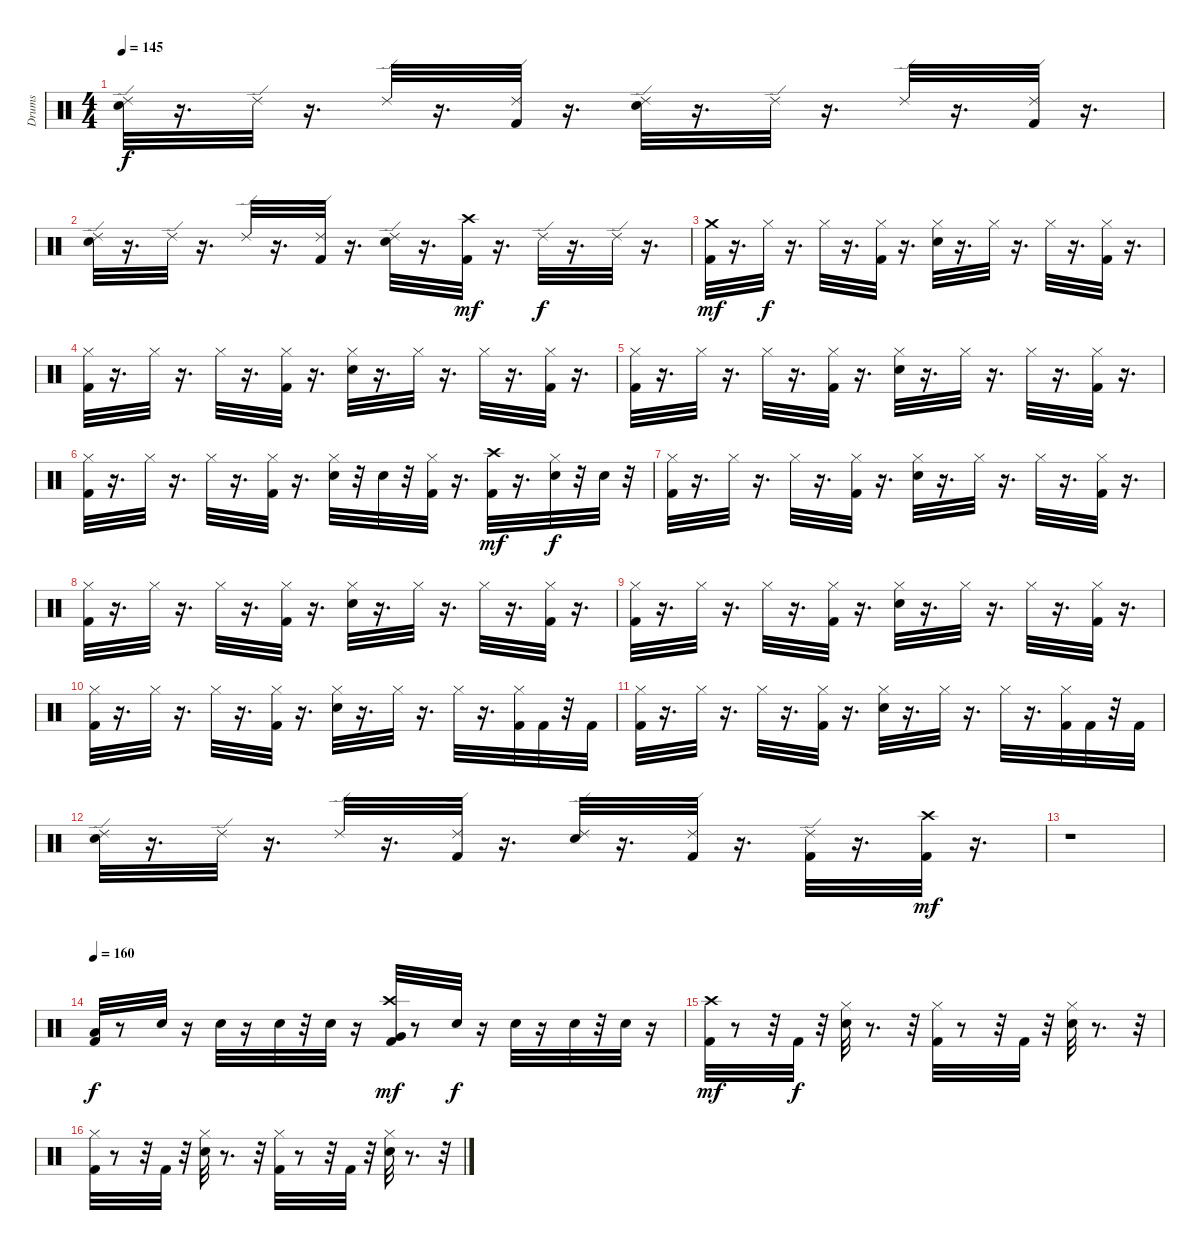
\track ("Drums" "Drums") {instrument percussion}
\staff {score}
\articulation defaults
\ts (4 4)
\tempo 145
\clef neutral
\ks c
("Snare (hit) 2" "Ride (edge) 2").32{dy f} r.16{d} "Ride (edge) 2".32 r.16{d} "Ride (edge) 2".32 r.16{d} ("Kick (hit) 2" "Ride (edge) 2").32 r.16{d} ("Snare (hit) 2" "Ride (edge) 2").32 r.16{d} "Ride (edge) 2".32 r.16{d} "Ride (edge) 2".32 r.16{d} ("Kick (hit) 2" "Ride (edge) 2").32 r.16{d} |
("Snare (hit) 2" "Ride (edge) 2").32 r.16{d} "Ride (edge) 2".32 r.16{d} "Ride (edge) 2".32 r.16{d} ("Kick (hit) 2" "Ride (edge) 2").32 r.16{d} ("Snare (hit) 2" "Ride (edge) 2").32 r.16{d} ("Kick (hit) 2" "Crash high (hit)").32{dy mf} r.16{d} "Ride (edge) 2".32{dy f} r.16{d} "Ride (edge) 2".32 r.16{d} |
("Kick (hit) 2" "Crash medium (hit)").32{dy mf} r.16{d} "Hi-Hat (closed)".32{dy f} r.16{d} "Hi-Hat (closed)".32 r.16{d} ("Kick (hit) 2" "Hi-Hat (closed)").32 r.16{d} ("Snare (hit) 2" "Hi-Hat (closed)").32 r.16{d} "Hi-Hat (closed)".32 r.16{d} "Hi-Hat (closed)".32 r.16{d} ("Kick (hit) 2" "Hi-Hat (closed)").32 r.16{d} |
("Kick (hit) 2" "Hi-Hat (closed)").32 r.16{d} "Hi-Hat (closed)".32 r.16{d} "Hi-Hat (closed)".32 r.16{d} ("Kick (hit) 2" "Hi-Hat (closed)").32 r.16{d} ("Snare (hit) 2" "Hi-Hat (closed)").32 r.16{d} "Hi-Hat (closed)".32 r.16{d} "Hi-Hat (closed)".32 r.16{d} ("Kick (hit) 2" "Hi-Hat (closed)").32 r.16{d} |
("Kick (hit) 2" "Hi-Hat (closed)").32 r.16{d} "Hi-Hat (closed)".32 r.16{d} "Hi-Hat (closed)".32 r.16{d} ("Kick (hit) 2" "Hi-Hat (closed)").32 r.16{d} ("Snare (hit) 2" "Hi-Hat (closed)").32 r.16{d} "Hi-Hat (closed)".32 r.16{d} "Hi-Hat (closed)".32 r.16{d} ("Kick (hit) 2" "Hi-Hat (closed)").32 r.16{d} |
("Kick (hit) 2" "Hi-Hat (closed)").32 r.16{d} "Hi-Hat (closed)".32 r.16{d} "Hi-Hat (closed)".32 r.16{d} ("Kick (hit) 2" "Hi-Hat (closed)").32 r.16{d} ("Snare (hit) 2" "Hi-Hat (closed)").32 r.32 "Snare (hit) 2".32 r.32 ("Kick (hit) 2" "Hi-Hat (closed)").32 r.16{d} ("Kick (hit) 2" "Crash high (hit)").32{dy mf} r.16{d} ("Snare (hit) 2" "Hi-Hat (closed)").32{dy f} r.32 "Snare (hit) 2".32 r.32 |
("Kick (hit) 2" "Hi-Hat (closed)").32 r.16{d} "Hi-Hat (closed)".32 r.16{d} "Hi-Hat (closed)".32 r.16{d} ("Kick (hit) 2" "Hi-Hat (closed)").32 r.16{d} ("Snare (hit) 2" "Hi-Hat (closed)").32 r.16{d} "Hi-Hat (closed)".32 r.16{d} "Hi-Hat (closed)".32 r.16{d} ("Kick (hit) 2" "Hi-Hat (closed)").32 r.16{d} |
("Kick (hit) 2" "Hi-Hat (closed)").32 r.16{d} "Hi-Hat (closed)".32 r.16{d} "Hi-Hat (closed)".32 r.16{d} ("Kick (hit) 2" "Hi-Hat (closed)").32 r.16{d} ("Snare (hit) 2" "Hi-Hat (closed)").32 r.16{d} "Hi-Hat (closed)".32 r.16{d} "Hi-Hat (closed)".32 r.16{d} ("Kick (hit) 2" "Hi-Hat (closed)").32 r.16{d} |
("Kick (hit) 2" "Hi-Hat (closed)").32 r.16{d} "Hi-Hat (closed)".32 r.16{d} "Hi-Hat (closed)".32 r.16{d} ("Kick (hit) 2" "Hi-Hat (closed)").32 r.16{d} ("Snare (hit) 2" "Hi-Hat (closed)").32 r.16{d} "Hi-Hat (closed)".32 r.16{d} "Hi-Hat (closed)".32 r.16{d} ("Kick (hit) 2" "Hi-Hat (closed)").32 r.16{d} |
("Kick (hit) 2" "Hi-Hat (closed)").32 r.16{d} "Hi-Hat (closed)".32 r.16{d} "Hi-Hat (closed)".32 r.16{d} ("Kick (hit) 2" "Hi-Hat (closed)").32 r.16{d} ("Snare (hit) 2" "Hi-Hat (closed)").32 r.16{d} "Hi-Hat (closed)".32 r.16{d} "Hi-Hat (closed)".32 r.16{d} ("Kick (hit) 2" "Hi-Hat (closed)").32 "Kick (hit) 2".32 r.32 "Kick (hit) 2".32 |
("Kick (hit) 2" "Hi-Hat (closed)").32 r.16{d} "Hi-Hat (closed)".32 r.16{d} "Hi-Hat (closed)".32 r.16{d} ("Kick (hit) 2" "Hi-Hat (closed)").32 r.16{d} ("Snare (hit) 2" "Hi-Hat (closed)").32 r.16{d} "Hi-Hat (closed)".32 r.16{d} "Hi-Hat (closed)".32 r.16{d} ("Kick (hit) 2" "Hi-Hat (closed)").32 "Kick (hit) 2".32 r.32 "Kick (hit) 2".32 |
("Snare (hit) 2" "Ride (edge) 2").32 r.16{d} "Ride (edge) 2".32 r.16{d} "Ride (edge) 2".32 r.16{d} ("Kick (hit) 2" "Ride (edge) 2").32 r.16{d} ("Snare (hit) 2" "Ride (edge) 2").32 r.16{d} ("Kick (hit) 2" "Ride (edge) 2").32 r.16{d} ("Kick (hit) 2" "Ride (edge) 2").32 r.16{d} ("Kick (hit) 2" "Crash high (hit)").32{dy mf} r.16{d} |
r.1 |
\tempo 160
("Kick (hit) 2" "Low Tom (hit)").32{dy f} r.8 "Snare (hit) 2".32 r.16 "Snare (hit) 2".32 r.16 "Snare (hit) 2".32 r.32 "Snare (hit) 2".32 r.16 ("Kick (hit) 2" "Very Low Tom (hit)" "Crash high (hit)").32{dy mf} r.8 "Snare (hit) 2".32{dy f} r.16 "Snare (hit) 2".32 r.16 "Snare (hit) 2".32 r.32 "Snare (hit) 2".32 r.16 |
("Kick (hit) 2" "Crash high (hit)").32{dy mf} r.8 r.32 "Kick (hit) 2".32{dy f} r.32 ("Snare (hit) 2" "Hi-Hat (closed)").32 r.8{d} r.32 ("Kick (hit) 2" "Hi-Hat (closed)").32 r.8 r.32 "Kick (hit) 2".32 r.32 ("Snare (hit) 2" "Hi-Hat (closed)").32 r.8{d} r.32 |
("Kick (hit) 2" "Hi-Hat (closed)").32 r.8 r.32 "Kick (hit) 2".32 r.32 ("Snare (hit) 2" "Hi-Hat (closed)").32 r.8{d} r.32 ("Kick (hit) 2" "Hi-Hat (closed)").32 r.8 r.32 "Kick (hit) 2".32 r.32 ("Snare (hit) 2" "Hi-Hat (closed)").32 r.8{d} r.32
